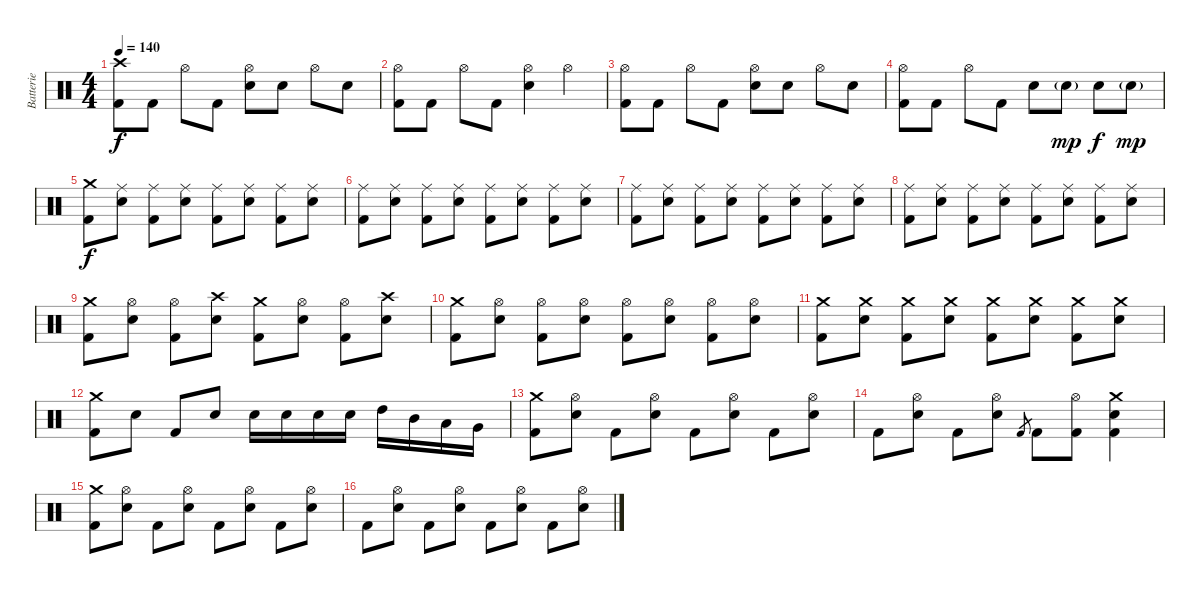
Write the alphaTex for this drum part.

\track ("Batterie" "Batterie") {instrument percussion}
\staff {score}
\articulation defaults
\ts (4 4)
\tempo 140
\clef neutral
\ks c
("Crash high (hit)" "Kick (hit) 2").8{dy f} "Kick (hit) 2".8 "Hi-Hat (open)".8 "Kick (hit) 2".8 ("Hi-Hat (open)" "Electric Snare (hit)").8 "Electric Snare (hit)".8 "Hi-Hat (open)".8 "Electric Snare (hit)".8 |
("Hi-Hat (open)" "Kick (hit) 2").8 "Kick (hit) 2".8 "Hi-Hat (open)".8 "Kick (hit) 2".8 ("Hi-Hat (open)" "Electric Snare (hit)").4 "Hi-Hat (open)".4 |
("Hi-Hat (open)" "Kick (hit) 2").8 "Kick (hit) 2".8 "Hi-Hat (open)".8 "Kick (hit) 2".8 ("Hi-Hat (open)" "Electric Snare (hit)").8 "Electric Snare (hit)".8 "Hi-Hat (open)".8 "Electric Snare (hit)".8 |
("Hi-Hat (open)" "Kick (hit) 2").8 "Kick (hit) 2".8 "Hi-Hat (open)".8 "Kick (hit) 2".8 "Electric Snare (hit)".8 "Electric Snare (hit)"{g}.8{dy mp} "Electric Snare (hit)".8{dy f} "Electric Snare (hit)"{g}.8{dy mp} |
("Crash medium (hit)" "Kick (hit) 2").8{dy f} ("Ride (middle)" "Electric Snare (hit)").8 ("Ride (middle)" "Kick (hit) 2").8 ("Ride (middle)" "Electric Snare (hit)").8 ("Ride (middle)" "Kick (hit) 2").8 ("Ride (middle)" "Electric Snare (hit)").8 ("Ride (middle)" "Kick (hit) 2").8 ("Ride (middle)" "Electric Snare (hit)").8 |
("Ride (middle)" "Kick (hit) 2").8 ("Ride (middle)" "Electric Snare (hit)").8 ("Ride (middle)" "Kick (hit) 2").8 ("Ride (middle)" "Electric Snare (hit)").8 ("Ride (middle)" "Kick (hit) 2").8 ("Ride (middle)" "Electric Snare (hit)").8 ("Ride (middle)" "Kick (hit) 2").8 ("Ride (middle)" "Electric Snare (hit)").8 |
("Ride (middle)" "Kick (hit) 2").8 ("Ride (middle)" "Electric Snare (hit)").8 ("Ride (middle)" "Kick (hit) 2").8 ("Ride (middle)" "Electric Snare (hit)").8 ("Ride (middle)" "Kick (hit) 2").8 ("Ride (middle)" "Electric Snare (hit)").8 ("Ride (middle)" "Kick (hit) 2").8 ("Ride (middle)" "Electric Snare (hit)").8 |
("Ride (middle)" "Kick (hit) 2").8 ("Ride (middle)" "Electric Snare (hit)").8 ("Ride (middle)" "Kick (hit) 2").8 ("Ride (middle)" "Electric Snare (hit)").8 ("Ride (middle)" "Kick (hit) 2").8 ("Ride (middle)" "Electric Snare (hit)").8 ("Ride (middle)" "Kick (hit) 2").8 ("Ride (middle)" "Electric Snare (hit)").8 |
("Crash medium (hit)" "Kick (hit) 2").8 ("Hi-Hat (open)" "Electric Snare (hit)").8 ("Hi-Hat (open)" "Kick (hit) 2").8 ("Crash high (hit)" "Electric Snare (hit)").8 ("Crash medium (hit)" "Kick (hit) 2").8 ("Hi-Hat (open)" "Electric Snare (hit)").8 ("Hi-Hat (open)" "Kick (hit) 2").8 ("Crash high (hit)" "Electric Snare (hit)").8 |
("Crash medium (hit)" "Kick (hit) 2").8 ("Hi-Hat (open)" "Electric Snare (hit)").8 ("Hi-Hat (open)" "Kick (hit) 2").8 ("Hi-Hat (open)" "Electric Snare (hit)").8 ("Hi-Hat (open)" "Kick (hit) 2").8 ("Hi-Hat (open)" "Electric Snare (hit)").8 ("Hi-Hat (open)" "Kick (hit) 2").8 ("Hi-Hat (open)" "Electric Snare (hit)").8 |
("Crash medium (hit)" "Kick (hit) 2").8 ("Crash medium (hit)" "Electric Snare (hit)").8 ("Crash medium (hit)" "Kick (hit) 2").8 ("Crash medium (hit)" "Electric Snare (hit)").8 ("Crash medium (hit)" "Kick (hit) 2").8 ("Crash medium (hit)" "Electric Snare (hit)").8 ("Crash medium (hit)" "Kick (hit) 2").8 ("Crash medium (hit)" "Electric Snare (hit)").8 |
("Crash medium (hit)" "Kick (hit) 2").8 "Electric Snare (hit)".8 "Kick (hit) 2".8 "Electric Snare (hit)".8 "Electric Snare (hit)".16 "Electric Snare (hit)".16 "Electric Snare (hit)".16 "Electric Snare (hit)".16 "High Tom (hit)".16 "Mid Tom (hit)".16 "Low Tom (hit)".16 "Very Low Tom (hit)".16 |
("Crash medium (hit)" "Kick (hit) 2").8 ("Hi-Hat (open)" "Electric Snare (hit)").8 "Kick (hit) 2".8 ("Hi-Hat (open)" "Electric Snare (hit)").8 "Kick (hit) 2".8 ("Hi-Hat (open)" "Electric Snare (hit)").8 "Kick (hit) 2".8 ("Hi-Hat (open)" "Electric Snare (hit)").8 |
"Kick (hit) 2".8 ("Hi-Hat (open)" "Electric Snare (hit)").8 "Kick (hit) 2".8 ("Hi-Hat (open)" "Electric Snare (hit)").8 "Kick (hit) 2".8{gr} "Kick (hit) 2".8 ("Hi-Hat (open)" "Kick (hit) 2").8 ("Crash medium (hit)" "Electric Snare (hit)" "Kick (hit) 2").4 |
("Crash medium (hit)" "Kick (hit) 2").8 ("Hi-Hat (open)" "Electric Snare (hit)").8 "Kick (hit) 2".8 ("Hi-Hat (open)" "Electric Snare (hit)").8 "Kick (hit) 2".8 ("Hi-Hat (open)" "Electric Snare (hit)").8 "Kick (hit) 2".8 ("Hi-Hat (open)" "Electric Snare (hit)").8 |
"Kick (hit) 2".8 ("Hi-Hat (open)" "Electric Snare (hit)").8 "Kick (hit) 2".8 ("Hi-Hat (open)" "Electric Snare (hit)").8 "Kick (hit) 2".8 ("Hi-Hat (open)" "Electric Snare (hit)").8 "Kick (hit) 2".8 ("Hi-Hat (open)" "Electric Snare (hit)").8
